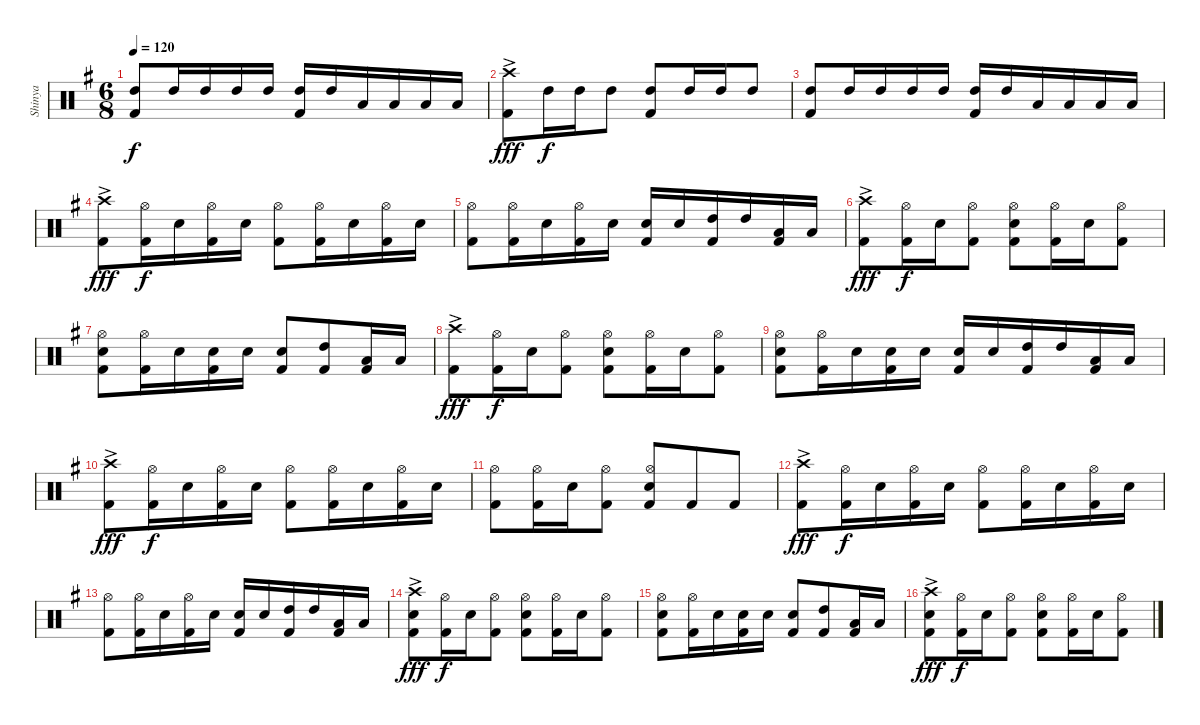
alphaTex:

\track ("Shinya" "Shinya") {instrument percussion}
\staff {score}
\articulation defaults
\ts (6 8)
\tempo 120
\clef neutral
\ks g
("High Tom (hit)" "Kick (hit) 2").8{dy f} "High Tom (hit)".16 "High Tom (hit)".16 "High Tom (hit)".16 "High Tom (hit)".16 ("High Tom (hit)" "Kick (hit) 2").16 "High Tom (hit)".16 "Low Tom (hit)".16 "Low Tom (hit)".16 "Low Floor Tom (hit)".16 "Low Floor Tom (hit)".16 |
("Crash high (hit)"{ac} "Kick (hit) 2").8{dy fff} "High Tom (hit)".16{dy f} "High Tom (hit)".16 "High Tom (hit)".8 ("High Tom (hit)" "Kick (hit) 2").8 "High Tom (hit)".16 "High Tom (hit)".16 "High Tom (hit)".8 |
("High Tom (hit)" "Kick (hit) 2").8 "High Tom (hit)".16 "High Tom (hit)".16 "High Tom (hit)".16 "High Tom (hit)".16 ("High Tom (hit)" "Kick (hit) 2").16 "High Tom (hit)".16 "Low Tom (hit)".16 "Low Tom (hit)".16 "Low Floor Tom (hit)".16 "Low Floor Tom (hit)".16 |
("Crash high (hit)"{ac} "Kick (hit) 2").8{dy fff} ("Hi-Hat (open)" "Kick (hit) 2").16{dy f} "Snare (hit) 2".16 ("Hi-Hat (open)" "Kick (hit) 2").16 "Snare (hit) 2".16 ("Hi-Hat (open)" "Kick (hit) 2").8 ("Hi-Hat (open)" "Kick (hit) 2").16 "Snare (hit) 2".16 ("Hi-Hat (open)" "Kick (hit) 2").16 "Snare (hit) 2".16 |
("Hi-Hat (open)" "Kick (hit) 2").8 ("Hi-Hat (open)" "Kick (hit) 2").16 "Snare (hit) 2".16 ("Hi-Hat (open)" "Kick (hit) 2").16 "Snare (hit) 2".16 ("Snare (hit) 2" "Kick (hit) 2").16 "Snare (hit) 2".16 ("High Tom (hit)" "Kick (hit) 2").16 "High Tom (hit)".16 ("Low Tom (hit)" "Kick (hit) 2").16 "Low Tom (hit)".16 |
("Crash high (hit)"{ac} "Kick (hit) 2").8{dy fff} ("Hi-Hat (open)" "Kick (hit) 2").16{dy f} "Snare (hit) 2".16 ("Hi-Hat (open)" "Kick (hit) 2").8 ("Hi-Hat (open)" "Snare (hit) 2" "Kick (hit) 2").8 ("Hi-Hat (open)" "Kick (hit) 2").16 "Snare (hit) 2".16 ("Hi-Hat (open)" "Kick (hit) 2").8 |
("Hi-Hat (open)" "Snare (hit) 2" "Kick (hit) 2").8 ("Hi-Hat (open)" "Kick (hit) 2").16 "Snare (hit) 2".16 ("Snare (hit) 2" "Kick (hit) 2").16 "Snare (hit) 2".16 ("Snare (hit) 2" "Kick (hit) 2").8 ("High Tom (hit)" "Kick (hit) 2").8 ("Low Tom (hit)" "Kick (hit) 2").16 "Low Tom (hit)".16 |
("Crash high (hit)"{ac} "Kick (hit) 2").8{dy fff} ("Hi-Hat (open)" "Kick (hit) 2").16{dy f} "Snare (hit) 2".16 ("Hi-Hat (open)" "Kick (hit) 2").8 ("Hi-Hat (open)" "Snare (hit) 2" "Kick (hit) 2").8 ("Hi-Hat (open)" "Kick (hit) 2").16 "Snare (hit) 2".16 ("Hi-Hat (open)" "Kick (hit) 2").8 |
("Hi-Hat (open)" "Snare (hit) 2" "Kick (hit) 2").8 ("Hi-Hat (open)" "Kick (hit) 2").16 "Snare (hit) 2".16 ("Snare (hit) 2" "Kick (hit) 2").16 "Snare (hit) 2".16 ("Snare (hit) 2" "Kick (hit) 2").16 "Snare (hit) 2".16 ("High Tom (hit)" "Kick (hit) 2").16 "High Tom (hit)".16 ("Low Tom (hit)" "Kick (hit) 2").16 "Low Tom (hit)".16 |
("Crash high (hit)"{ac} "Kick (hit) 2").8{dy fff} ("Hi-Hat (open)" "Kick (hit) 2").16{dy f} "Snare (hit) 2".16 ("Hi-Hat (open)" "Kick (hit) 2").16 "Snare (hit) 2".16 ("Hi-Hat (open)" "Kick (hit) 2").8 ("Hi-Hat (open)" "Kick (hit) 2").16 "Snare (hit) 2".16 ("Hi-Hat (open)" "Kick (hit) 2").16 "Snare (hit) 2".16 |
("Hi-Hat (open)" "Kick (hit) 2").8 ("Hi-Hat (open)" "Kick (hit) 2").16 "Snare (hit) 2".16 ("Hi-Hat (open)" "Kick (hit) 2").8 ("Hi-Hat (open)" "Snare (hit) 2" "Kick (hit) 2").8 "Kick (hit) 2".8 "Kick (hit) 2".8 |
("Crash high (hit)"{ac} "Kick (hit) 2").8{dy fff} ("Hi-Hat (open)" "Kick (hit) 2").16{dy f} "Snare (hit) 2".16 ("Hi-Hat (open)" "Kick (hit) 2").16 "Snare (hit) 2".16 ("Hi-Hat (open)" "Kick (hit) 2").8 ("Hi-Hat (open)" "Kick (hit) 2").16 "Snare (hit) 2".16 ("Hi-Hat (open)" "Kick (hit) 2").16 "Snare (hit) 2".16 |
("Hi-Hat (open)" "Kick (hit) 2").8 ("Hi-Hat (open)" "Kick (hit) 2").16 "Snare (hit) 2".16 ("Hi-Hat (open)" "Kick (hit) 2").16 "Snare (hit) 2".16 ("Snare (hit) 2" "Kick (hit) 2").16 "Snare (hit) 2".16 ("High Tom (hit)" "Kick (hit) 2").16 "High Tom (hit)".16 ("Low Tom (hit)" "Kick (hit) 2").16 "Low Tom (hit)".16 |
("Crash high (hit)"{ac} "Snare (hit) 2" "Kick (hit) 2").8{dy fff} ("Hi-Hat (open)" "Kick (hit) 2").16{dy f} "Snare (hit) 2".16 ("Hi-Hat (open)" "Kick (hit) 2").8 ("Hi-Hat (open)" "Snare (hit) 2" "Kick (hit) 2").8 ("Hi-Hat (open)" "Kick (hit) 2").16 "Snare (hit) 2".16 ("Hi-Hat (open)" "Kick (hit) 2").8 |
("Hi-Hat (open)" "Snare (hit) 2" "Kick (hit) 2").8 ("Hi-Hat (open)" "Kick (hit) 2").16 "Snare (hit) 2".16 ("Snare (hit) 2" "Kick (hit) 2").16 "Snare (hit) 2".16 ("Snare (hit) 2" "Kick (hit) 2").8 ("High Tom (hit)" "Kick (hit) 2").8 ("Low Tom (hit)" "Kick (hit) 2").16 "Low Tom (hit)".16 |
("Crash high (hit)"{ac} "Snare (hit) 2" "Kick (hit) 2").8{dy fff} ("Hi-Hat (open)" "Kick (hit) 2").16{dy f} "Snare (hit) 2".16 ("Hi-Hat (open)" "Kick (hit) 2").8 ("Hi-Hat (open)" "Snare (hit) 2" "Kick (hit) 2").8 ("Hi-Hat (open)" "Kick (hit) 2").16 "Snare (hit) 2".16 ("Hi-Hat (open)" "Kick (hit) 2").8
